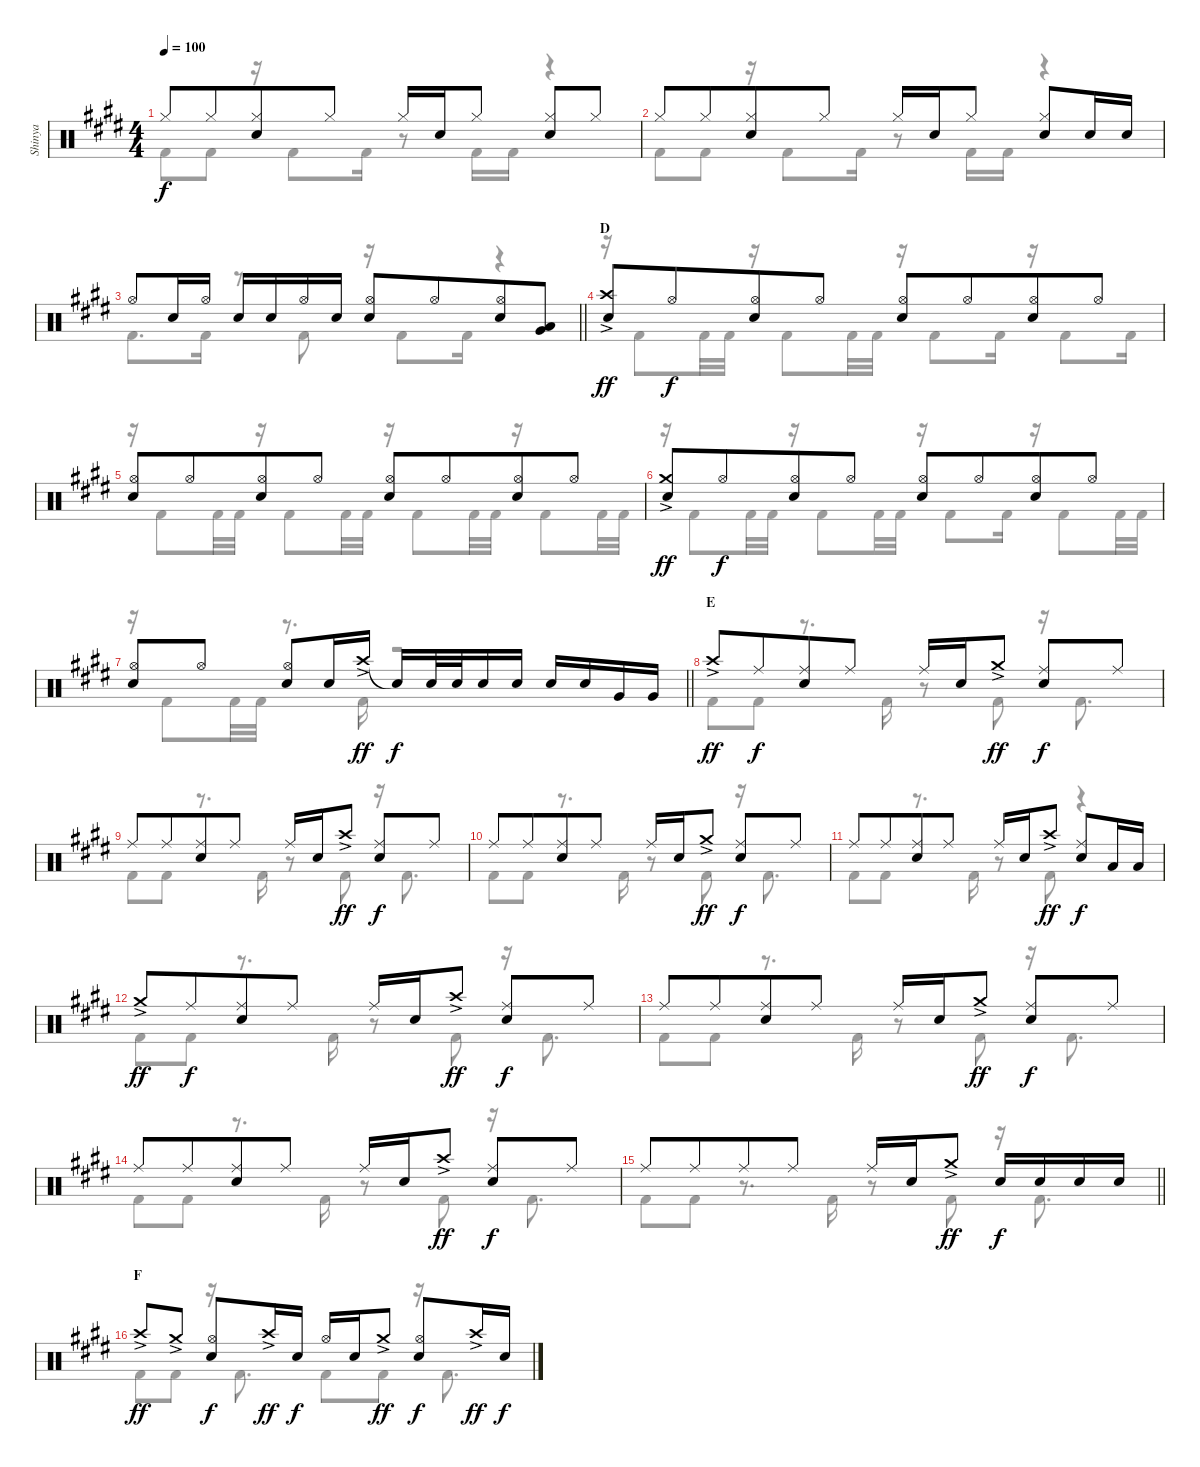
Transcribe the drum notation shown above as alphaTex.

\track ("Shinya" "Shinya") {instrument percussion}
\staff {score}
\articulation defaults
\voice
\ts (4 4)
\tempo 100
\clef neutral
\ks c#minor "Hi-Hat (closed)".8{dy f} "Hi-Hat (closed)".8{beam merge}
("Hi-Hat (closed)" "Snare (hit) 2").8 "Hi-Hat (closed)".8 "Hi-Hat (closed)".16 "Snare (hit) 2".16 "Hi-Hat (closed)".8 ("Hi-Hat (closed)" "Snare (hit) 2").8 "Hi-Hat (closed)".8 |
"Hi-Hat (closed)".8 "Hi-Hat (closed)".8{beam merge} ("Hi-Hat (closed)" "Snare (hit) 2").8 "Hi-Hat (closed)".8 "Hi-Hat (closed)".16 "Snare (hit) 2".16 "Hi-Hat (closed)".8 ("Hi-Hat (closed)" "Snare (hit) 2").8 "Snare (hit) 2".16 "Snare (hit) 2".16 |
\barLineRight lightlight "Hi-Hat (open)".8 "Snare (hit) 2".16 "Hi-Hat (open)".16 "Snare (hit) 2".16 "Snare (hit) 2".16 "Hi-Hat (open)".16 "Snare (hit) 2".16
("Hi-Hat (open)" "Snare (hit) 2").8 "Hi-Hat (open)".8{beam merge} ("Hi-Hat (open)" "Snare (hit) 2").8 ("Low Tom (hit)" "Very Low Tom (hit)").8 |
\section ("" "D")
("Crash high (hit)"{ac} "Snare (hit) 2").8{dy ff} "Hi-Hat (open)".8{dy f beam merge} ("Hi-Hat (open)" "Snare (hit) 2").8 "Hi-Hat (open)".8 ("Hi-Hat (open)" "Snare (hit) 2").8 "Hi-Hat (open)".8{beam merge} ("Hi-Hat (open)" "Snare (hit) 2").8 "Hi-Hat (open)".8 |
("Hi-Hat (open)" "Snare (hit) 2").8 "Hi-Hat (open)".8{beam merge} ("Hi-Hat (open)" "Snare (hit) 2").8 "Hi-Hat (open)".8 ("Hi-Hat (open)" "Snare (hit) 2").8 "Hi-Hat (open)".8{beam merge} ("Hi-Hat (open)" "Snare (hit) 2").8 "Hi-Hat (open)".8 |
("Crash medium (hit)"{ac} "Snare (hit) 2").8{dy ff} "Hi-Hat (open)".8{dy f beam merge} ("Hi-Hat (open)" "Snare (hit) 2").8 "Hi-Hat (open)".8 ("Hi-Hat (open)" "Snare (hit) 2").8 "Hi-Hat (open)".8{beam merge} ("Hi-Hat (open)" "Snare (hit) 2").8 "Hi-Hat (open)".8 |
\barLineRight lightlight
("Hi-Hat (open)" "Snare (hit) 2").8 "Hi-Hat (open)".8 ("Hi-Hat (open)" "Snare (hit) 2").8 "Snare (hit) 2".16 "Crash high (hit)"{ac}.16{dy ff} "Snare (hit)"{t}.16{dy f} "Snare (hit) 2".32 "Snare (hit) 2".32{beam splitsecondary} "Snare (hit) 2".16 "Snare (hit) 2".16 "Snare (hit) 2".16 "Snare (hit) 2".16 "Very Low Tom (hit)".16 "Very Low Tom (hit)".16 |
\section ("" "E")
"Crash high (hit)"{ac}.8{dy ff} "Ride (middle)".8{dy f beam merge} ("Ride (middle)" "Snare (hit) 2").8 "Ride (middle)".8 "Ride (middle)".16 "Snare (hit) 2".16 "Crash medium (hit)"{ac}.8{dy ff} ("Ride (middle)" "Snare (hit) 2").8{dy f} "Ride (middle)".8 |
"Ride (middle)".8 "Ride (middle)".8{beam merge} ("Ride (middle)" "Snare (hit) 2").8 "Ride (middle)".8 "Ride (middle)".16 "Snare (hit) 2".16 "Crash high (hit)"{ac}.8{dy ff} ("Ride (middle)" "Snare (hit) 2").8{dy f} "Ride (middle)".8 |
"Ride (middle)".8 "Ride (middle)".8{beam merge} ("Ride (middle)" "Snare (hit) 2").8 "Ride (middle)".8 "Ride (middle)".16 "Snare (hit) 2".16 "Crash medium (hit)"{ac}.8{dy ff} ("Ride (middle)" "Snare (hit) 2").8{dy f} "Ride (middle)".8 |
"Ride (middle)".8 "Ride (middle)".8{beam merge} ("Ride (middle)" "Snare (hit) 2").8 "Ride (middle)".8 "Ride (middle)".16 "Snare (hit) 2".16 "Crash high (hit)"{ac}.8{dy ff} ("Ride (middle)" "Snare (hit) 2").8{dy f} "Low Tom (hit)".16 "Low Tom (hit)".16 |
"Crash medium (hit)"{ac}.8{dy ff} "Ride (middle)".8{dy f beam merge} ("Ride (middle)" "Snare (hit) 2").8 "Ride (middle)".8 "Ride (middle)".16 "Snare (hit) 2".16 "Crash high (hit)"{ac}.8{dy ff} ("Ride (middle)" "Snare (hit) 2").8{dy f} "Ride (middle)".8 |
"Ride (middle)".8 "Ride (middle)".8{beam merge} ("Ride (middle)" "Snare (hit) 2").8 "Ride (middle)".8 "Ride (middle)".16 "Snare (hit) 2".16 "Crash medium (hit)"{ac}.8{dy ff} ("Ride (middle)" "Snare (hit) 2").8{dy f} "Ride (middle)".8 |
"Ride (middle)".8 "Ride (middle)".8{beam merge} ("Ride (middle)" "Snare (hit) 2").8 "Ride (middle)".8 "Ride (middle)".16 "Snare (hit) 2".16 "Crash high (hit)"{ac}.8{dy ff} ("Ride (middle)" "Snare (hit) 2").8{dy f} "Ride (middle)".8 |
\barLineRight lightlight "Ride (middle)".8 "Ride (middle)".8{beam merge} "Ride (middle)".8 "Ride (middle)".8 "Ride (middle)".16 "Snare (hit) 2".16 "Crash medium (hit)"{ac}.8{dy ff} "Snare (hit) 2".16{dy f} "Snare (hit) 2".16 "Snare (hit) 2".16 "Snare (hit) 2".16
|
\section ("" "F")
"Crash high (hit)"{ac}.8{dy ff} "Crash medium (hit)"{ac}.8 ("Hi-Hat (open)" "Snare (hit) 2").8{dy f} "Crash high (hit)"{ac}.16{dy ff} "Snare (hit) 2".16{dy f} "Hi-Hat (open)".16 "Snare (hit) 2".16 "Crash medium (hit)"{ac}.8{dy ff} ("Hi-Hat (open)" "Snare (hit) 2").8{dy f} "Crash high (hit)"{ac}.16{dy ff} "Snare (hit) 2".16{dy f}
\voice
\clef neutral
\ottava regular
\simile none
\ks c#minor "Kick (hit) 2".8{dy f} "Kick (hit) 2".8
r.16 "Kick (hit) 2".8 "Kick (hit) 2".16 r.8 "Kick (hit) 2".16 "Kick (hit) 2".16 r.4 |
"Kick (hit) 2".8 "Kick (hit) 2".8 r.16 "Kick (hit) 2".8 "Kick (hit) 2".16 r.8 "Kick (hit) 2".16 "Kick (hit) 2".16 r.4 |
\barLineRight lightlight "Kick (hit) 2".8{d} "Kick (hit) 2".16
r.8 "Kick (hit) 2".8 r.16 "Kick (hit) 2".8 "Kick (hit) 2".16 r.4 |
r.16 "Kick (hit) 2".8 "Kick (hit) 2".32 "Kick (hit) 2".32 r.16 "Kick (hit) 2".8 "Kick (hit) 2".32 "Kick (hit) 2".32 r.16 "Kick (hit) 2".8 "Kick (hit) 2".16 r.16 "Kick (hit) 2".8 "Kick (hit) 2".16 |
r.16 "Kick (hit) 2".8 "Kick (hit) 2".32 "Kick (hit) 2".32 r.16 "Kick (hit) 2".8 "Kick (hit) 2".32 "Kick (hit) 2".32 r.16 "Kick (hit) 2".8 "Kick (hit) 2".32 "Kick (hit) 2".32 r.16 "Kick (hit) 2".8 "Kick (hit) 2".32 "Kick (hit) 2".32 |
r.16 "Kick (hit) 2".8 "Kick (hit) 2".32 "Kick (hit) 2".32 r.16 "Kick (hit) 2".8 "Kick (hit) 2".32 "Kick (hit) 2".32 r.16 "Kick (hit) 2".8 "Kick (hit) 2".16 r.16 "Kick (hit) 2".8 "Kick (hit) 2".32 "Kick (hit) 2".32 |
\barLineRight lightlight
r.16 "Kick (hit) 2".8 "Kick (hit) 2".32 "Kick (hit) 2".32 r.8{d} "Kick (hit) 2".16 r.2 |
"Kick (hit) 2".8 "Kick (hit) 2".8 r.8{d} "Kick (hit) 2".16 r.8 "Kick (hit) 2".8 r.16 "Kick (hit) 2".8{d} |
"Kick (hit) 2".8 "Kick (hit) 2".8 r.8{d} "Kick (hit) 2".16 r.8 "Kick (hit) 2".8 r.16 "Kick (hit) 2".8{d} |
"Kick (hit) 2".8 "Kick (hit) 2".8 r.8{d} "Kick (hit) 2".16 r.8 "Kick (hit) 2".8 r.16 "Kick (hit) 2".8{d} |
"Kick (hit) 2".8 "Kick (hit) 2".8 r.8{d} "Kick (hit) 2".16 r.8 "Kick (hit) 2".8 r.4 |
"Kick (hit) 2".8 "Kick (hit) 2".8 r.8{d} "Kick (hit) 2".16 r.8 "Kick (hit) 2".8 r.16 "Kick (hit) 2".8{d} |
"Kick (hit) 2".8 "Kick (hit) 2".8 r.8{d} "Kick (hit) 2".16 r.8 "Kick (hit) 2".8 r.16 "Kick (hit) 2".8{d} |
"Kick (hit) 2".8 "Kick (hit) 2".8 r.8{d} "Kick (hit) 2".16 r.8 "Kick (hit) 2".8 r.16 "Kick (hit) 2".8{d} |
\barLineRight lightlight "Kick (hit) 2".8 "Kick (hit) 2".8
r.8{d} "Kick (hit) 2".16 r.8 "Kick (hit) 2".8 r.16 "Kick (hit) 2".8{d} |
"Kick (hit) 2".8 "Kick (hit) 2".8 r.16 "Kick (hit) 2".8{d} "Kick (hit) 2".8 "Kick (hit) 2".8 r.16 "Kick (hit) 2".8{d}
